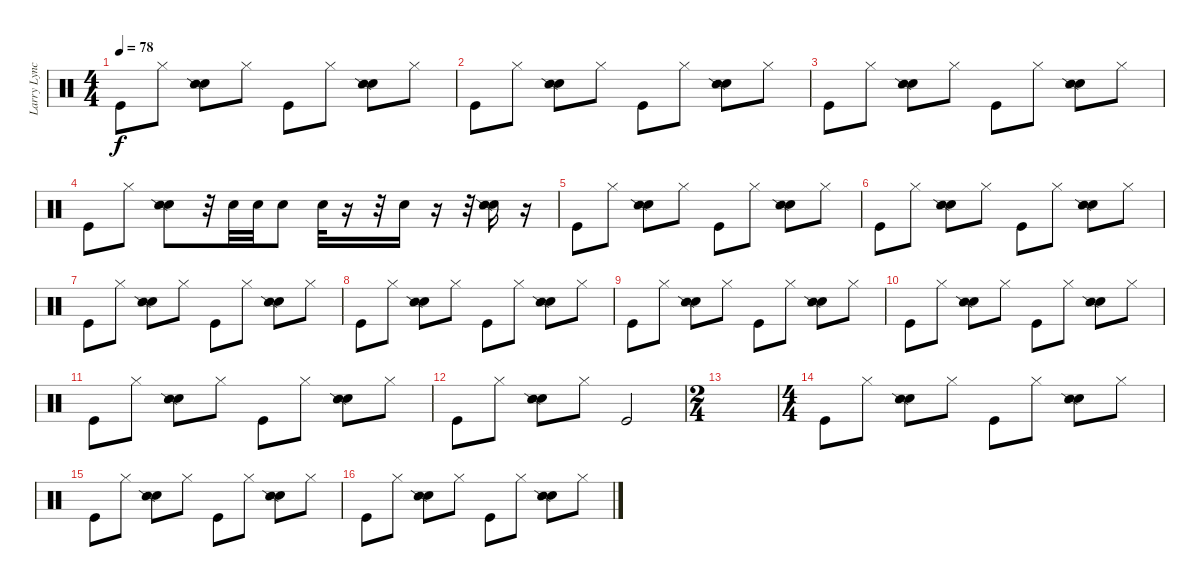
\track ("Larry Lynch" "Larry Lync") {instrument percussion}
\staff {score}
\articulation defaults
\ts (4 4)
\tempo 78
\clef neutral
\ks c "Kick (hit)".8{dy f} "Hi-Hat (closed)".8
("Electric Snare (hit)" "Snare (side stick) 2").8 "Hi-Hat (closed)".8 "Kick (hit)".8 "Hi-Hat (closed)".8 ("Electric Snare (hit)" "Snare (side stick) 2").8 "Hi-Hat (closed)".8 |
"Kick (hit)".8 "Hi-Hat (closed)".8 ("Electric Snare (hit)" "Snare (side stick) 2").8 "Hi-Hat (closed)".8 "Kick (hit)".8 "Hi-Hat (closed)".8 ("Electric Snare (hit)" "Snare (side stick) 2").8 "Hi-Hat (closed)".8 |
"Kick (hit)".8 "Hi-Hat (closed)".8 ("Electric Snare (hit)" "Snare (side stick) 2").8 "Hi-Hat (closed)".8 "Kick (hit)".8 "Hi-Hat (closed)".8 ("Electric Snare (hit)" "Snare (side stick) 2").8 "Hi-Hat (closed)".8 |
"Kick (hit)".8 "Hi-Hat (closed)".8 ("Electric Snare (hit)" "Snare (side stick) 2").8 r.32 "Snare (hit) 2".32 "Snare (hit) 2".32 "Snare (hit) 2".8 "Snare (hit) 2".32 r.16 r.32 "Snare (hit) 2".16 r.16 r.32 ("Electric Snare (hit)" "Snare (side stick) 2").16 r.16 |
"Kick (hit)".8 "Hi-Hat (closed)".8 ("Electric Snare (hit)" "Snare (side stick) 2").8 "Hi-Hat (closed)".8 "Kick (hit)".8 "Hi-Hat (closed)".8 ("Electric Snare (hit)" "Snare (side stick) 2").8 "Hi-Hat (closed)".8 |
"Kick (hit)".8 "Hi-Hat (closed)".8 ("Electric Snare (hit)" "Snare (side stick) 2").8 "Hi-Hat (closed)".8 "Kick (hit)".8 "Hi-Hat (closed)".8 ("Electric Snare (hit)" "Snare (side stick) 2").8 "Hi-Hat (closed)".8 |
"Kick (hit)".8 "Hi-Hat (closed)".8 ("Electric Snare (hit)" "Snare (side stick) 2").8 "Hi-Hat (closed)".8 "Kick (hit)".8 "Hi-Hat (closed)".8 ("Electric Snare (hit)" "Snare (side stick) 2").8 "Hi-Hat (closed)".8 |
"Kick (hit)".8 "Hi-Hat (closed)".8 ("Electric Snare (hit)" "Snare (side stick) 2").8 "Hi-Hat (closed)".8 "Kick (hit)".8 "Hi-Hat (closed)".8 ("Electric Snare (hit)" "Snare (side stick) 2").8 "Hi-Hat (closed)".8 |
"Kick (hit)".8 "Hi-Hat (closed)".8 ("Electric Snare (hit)" "Snare (side stick) 2").8 "Hi-Hat (closed)".8 "Kick (hit)".8 "Hi-Hat (closed)".8 ("Electric Snare (hit)" "Snare (side stick) 2").8 "Hi-Hat (closed)".8 |
"Kick (hit)".8 "Hi-Hat (closed)".8 ("Electric Snare (hit)" "Snare (side stick) 2").8 "Hi-Hat (closed)".8 "Kick (hit)".8 "Hi-Hat (closed)".8 ("Electric Snare (hit)" "Snare (side stick) 2").8 "Hi-Hat (closed)".8 |
"Kick (hit)".8 "Hi-Hat (closed)".8 ("Electric Snare (hit)" "Snare (side stick) 2").8 "Hi-Hat (closed)".8 "Kick (hit)".8 "Hi-Hat (closed)".8 ("Electric Snare (hit)" "Snare (side stick) 2").8 "Hi-Hat (closed)".8 |
"Kick (hit)".8 "Hi-Hat (closed)".8 ("Electric Snare (hit)" "Snare (side stick) 2").8 "Hi-Hat (closed)".8 "Kick (hit)".2 |
\ts (2 4)
|
\ts (4 4)
"Kick (hit)".8 "Hi-Hat (closed)".8 ("Electric Snare (hit)" "Snare (side stick) 2").8 "Hi-Hat (closed)".8 "Kick (hit)".8 "Hi-Hat (closed)".8 ("Electric Snare (hit)" "Snare (side stick) 2").8 "Hi-Hat (closed)".8 |
"Kick (hit)".8 "Hi-Hat (closed)".8 ("Electric Snare (hit)" "Snare (side stick) 2").8 "Hi-Hat (closed)".8 "Kick (hit)".8 "Hi-Hat (closed)".8 ("Electric Snare (hit)" "Snare (side stick) 2").8 "Hi-Hat (closed)".8 |
"Kick (hit)".8 "Hi-Hat (closed)".8 ("Electric Snare (hit)" "Snare (side stick) 2").8 "Hi-Hat (closed)".8 "Kick (hit)".8 "Hi-Hat (closed)".8 ("Electric Snare (hit)" "Snare (side stick) 2").8 "Hi-Hat (closed)".8
